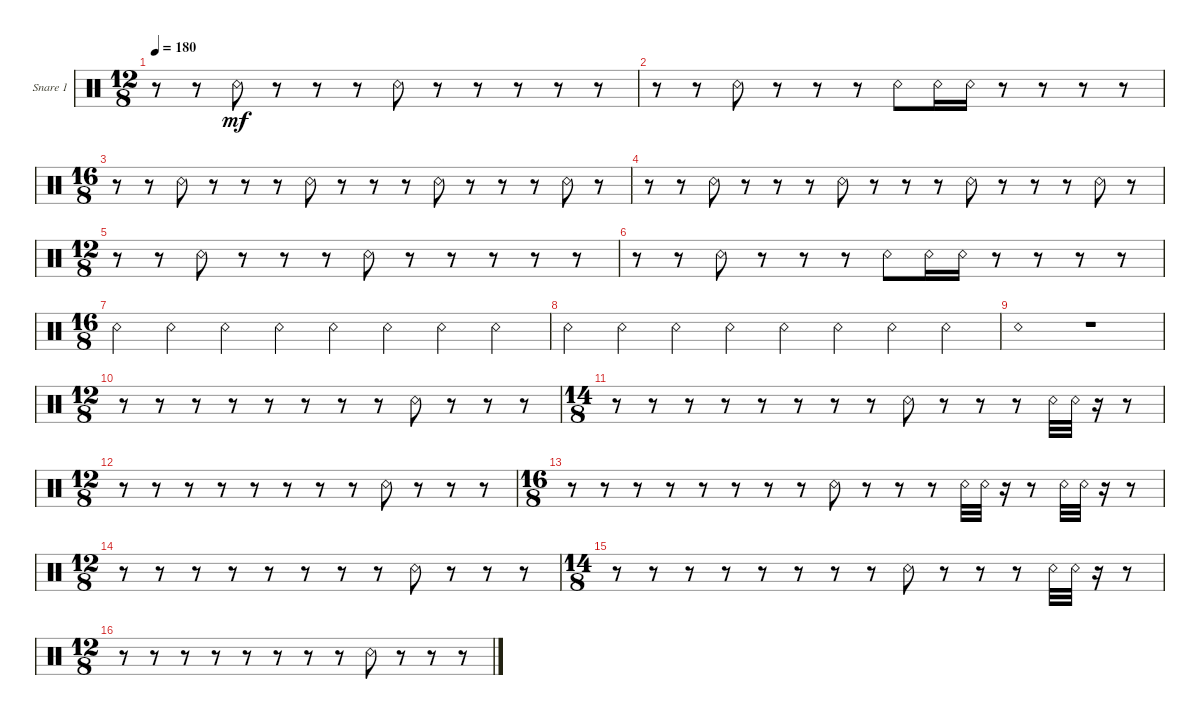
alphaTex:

\defaultSystemsLayout 4
\bracketExtendMode groupsimilarinstruments
\firstSystemTrackNameOrientation horizontal
\otherSystemsTrackNameOrientation horizontal
\track ("Snare 1" "Snare 1") {instrument percussion}
\staff {score}
\articulation defaults
\ts (12 8)
\tempo 180
\clef neutral
\ks c
r.8{dy mf} r.8 "Snare (rim shot)".8 r.8 r.8 r.8 "Snare (rim shot)".8 r.8 r.8 r.8 r.8 r.8 |
r.8 r.8 "Snare (rim shot)".8 r.8 r.8 r.8 "Snare (rim shot)".8 "Snare (rim shot)".16 "Snare (rim shot)".16 r.8 r.8 r.8 r.8 |
\ts (16 8)
\beaming (8 2 2 2 2 2 2 2 1 1)
r.8 r.8 "Snare (rim shot)".8 r.8 r.8 r.8 "Snare (rim shot)".8 r.8 r.8 r.8 "Snare (rim shot)".8 r.8 r.8 r.8 "Snare (rim shot)".8 r.8 |
r.8 r.8 "Snare (rim shot)".8 r.8 r.8 r.8 "Snare (rim shot)".8 r.8 r.8 r.8 "Snare (rim shot)".8 r.8 r.8 r.8 "Snare (rim shot)".8 r.8 |
\ts (12 8)
r.8 r.8 "Snare (rim shot)".8 r.8 r.8 r.8 "Snare (rim shot)".8 r.8 r.8 r.8 r.8 r.8 |
r.8 r.8 "Snare (rim shot)".8 r.8 r.8 r.8 "Snare (rim shot)".8 "Snare (rim shot)".16 "Snare (rim shot)".16 r.8 r.8 r.8 r.8 |
\ts (16 8)
"Snare (rim shot)".4 "Snare (rim shot)".4 "Snare (rim shot)".4 "Snare (rim shot)".4 "Snare (rim shot)".4 "Snare (rim shot)".4 "Snare (rim shot)".4 "Snare (rim shot)".4 |
"Snare (rim shot)".4 "Snare (rim shot)".4 "Snare (rim shot)".4 "Snare (rim shot)".4 "Snare (rim shot)".4 "Snare (rim shot)".4 "Snare (rim shot)".4 "Snare (rim shot)".4 |
"Snare (rim shot)".1 r.1 |
\ts (12 8)
r.8 r.8 r.8 r.8 r.8 r.8 r.8 r.8 "Snare (rim shot)".8 r.8 r.8 r.8 |
\ts (14 8)
r.8 r.8 r.8 r.8 r.8 r.8 r.8 r.8 "Snare (rim shot)".8 r.8 r.8 r.8 "Snare (rim shot)".32 "Snare (rim shot)".32 r.16 r.8 |
\ts (12 8)
r.8 r.8 r.8 r.8 r.8 r.8 r.8 r.8 "Snare (rim shot)".8 r.8 r.8 r.8 |
\ts (16 8)
r.8 r.8 r.8 r.8 r.8 r.8 r.8 r.8 "Snare (rim shot)".8 r.8 r.8 r.8 "Snare (rim shot)".32 "Snare (rim shot)".32 r.16 r.8 "Snare (rim shot)".32 "Snare (rim shot)".32 r.16 r.8 |
\ts (12 8)
r.8 r.8 r.8 r.8 r.8 r.8 r.8 r.8 "Snare (rim shot)".8 r.8 r.8 r.8 |
\ts (14 8)
r.8 r.8 r.8 r.8 r.8 r.8 r.8 r.8 "Snare (rim shot)".8 r.8 r.8 r.8 "Snare (rim shot)".32 "Snare (rim shot)".32 r.16 r.8 |
\ts (12 8)
r.8 r.8 r.8 r.8 r.8 r.8 r.8 r.8 "Snare (rim shot)".8 r.8 r.8 r.8
